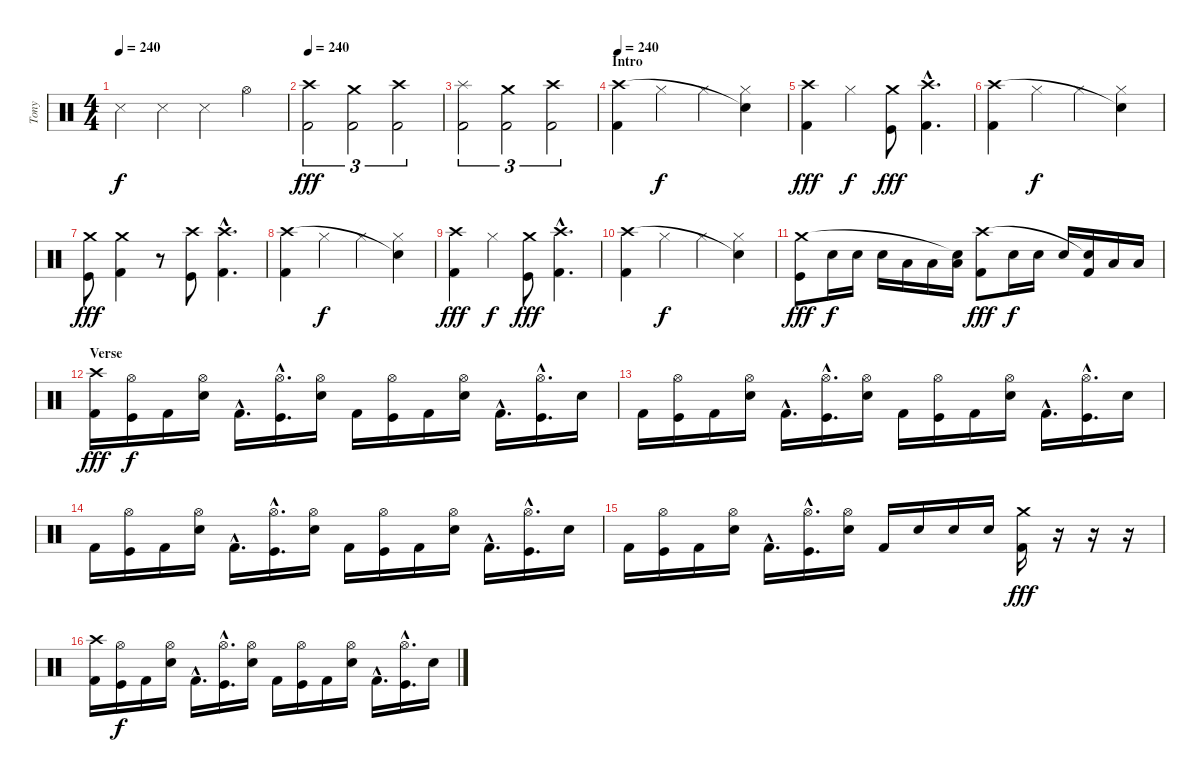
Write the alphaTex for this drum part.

\track ("Tony" "Tony") {instrument percussion}
\staff {score}
\articulation defaults
\ts (4 4)
\tempo 240
\clef neutral
\ks c "Snare (side stick) 3".4{dy f} "Snare (side stick) 3".4 "Snare (side stick) 3".4 "Hi-Hat (open)".4
|
\tempo 240
("Kick (hit) 2" "Crash high (hit)").2{tu (3 2) dy fff} ("Kick (hit) 2" "Crash medium (hit)").2{tu (3 2)} ("Kick (hit) 2" "Crash high (hit)").2{tu (3 2)} |
("Kick (hit) 2" "Splash (hit)").2{tu (3 2)} ("Kick (hit) 2" "Crash medium (hit)").2{tu (3 2)} ("Kick (hit) 2" "Crash high (hit)").2{tu (3 2)} |
\section ("" "Intro")
\tempo 240
("Kick (hit) 2" "Crash high (hit)").4 "Hi-Hat (closed)".4{dy f} "Hi-Hat (closed)".4 ("Hi-Hat (closed)" "Snare (hit)"{t}).4 |
("Kick (hit) 2" "Crash high (hit)").4{dy fff} "Hi-Hat (closed)".4{dy f} ("Kick (hit)" "Crash medium (hit)").8{dy fff} ("Kick (hit) 2"{hac} "Crash high (hit)"{hac}).4{d} |
("Kick (hit) 2" "Crash high (hit)").4 "Hi-Hat (closed)".4{dy f} "Hi-Hat (closed)".4 ("Hi-Hat (closed)" "Snare (hit)"{t}).4 |
("Kick (hit)" "Crash medium (hit)").8{dy fff} ("Kick (hit) 2" "Crash medium (hit)").4 r.8 ("Kick (hit)" "Crash high (hit)").8 ("Kick (hit) 2"{hac} "Crash high (hit)"{hac}).4{d} |
("Kick (hit) 2" "Crash high (hit)").4 "Hi-Hat (closed)".4{dy f} "Hi-Hat (closed)".4 ("Hi-Hat (closed)" "Snare (hit)"{t}).4 |
("Kick (hit) 2" "Crash high (hit)").4{dy fff} "Hi-Hat (closed)".4{dy f} ("Kick (hit)" "Crash medium (hit)").8{dy fff} ("Kick (hit) 2"{hac} "Crash high (hit)"{hac}).4{d} |
("Kick (hit) 2" "Crash high (hit)").4 "Hi-Hat (closed)".4{dy f} "Hi-Hat (closed)".4 ("Hi-Hat (closed)" "Snare (hit)"{t}).4 |
("Kick (hit)" "Crash medium (hit)").8{dy fff} "Snare (hit) 2".16{dy f} "Snare (hit) 2".16 "Snare (hit) 2".16 "Low Tom (hit)".16 "Low Tom (hit)".16 ("Low Tom (hit)" "Snare (hit)"{t}).16 ("Kick (hit) 2" "Crash high (hit)").8{dy fff} "Snare (hit) 2".16{dy f} "Snare (hit) 2".16 "Snare (hit) 2".16 ("Kick (hit) 2" "Snare (hit)"{t}).16 "Low Tom (hit)".16 "Low Tom (hit)".16 |
\section ("" "Verse")
("Kick (hit) 2" "Crash high (hit)").16{dy fff} ("Kick (hit)" "Hi-Hat (open)").16{dy f} "Kick (hit) 2".16 ("Snare (hit) 2" "Hi-Hat (open)").16 "Kick (hit) 2"{hac}.16{d} ("Kick (hit)"{hac} "Hi-Hat (open)"{hac}).16{d} ("Snare (hit) 2" "Hi-Hat (open)").16 "Kick (hit) 2".16 ("Kick (hit)" "Hi-Hat (open)").16 "Kick (hit) 2".16 ("Snare (hit) 2" "Hi-Hat (open)").16 "Kick (hit) 2"{hac}.16{d} ("Kick (hit)"{hac} "Hi-Hat (open)"{hac}).16{d} "Snare (hit) 2".16 |
"Kick (hit) 2".16 ("Kick (hit)" "Hi-Hat (open)").16 "Kick (hit) 2".16 ("Snare (hit) 2" "Hi-Hat (open)").16 "Kick (hit) 2"{hac}.16{d} ("Kick (hit)"{hac} "Hi-Hat (open)"{hac}).16{d} ("Snare (hit) 2" "Hi-Hat (open)").16 "Kick (hit) 2".16 ("Kick (hit)" "Hi-Hat (open)").16 "Kick (hit) 2".16 ("Snare (hit) 2" "Hi-Hat (open)").16 "Kick (hit) 2"{hac}.16{d} ("Kick (hit)"{hac} "Hi-Hat (open)"{hac}).16{d} "Snare (hit) 2".16 |
"Kick (hit) 2".16 ("Kick (hit)" "Hi-Hat (open)").16 "Kick (hit) 2".16 ("Snare (hit) 2" "Hi-Hat (open)").16 "Kick (hit) 2"{hac}.16{d} ("Kick (hit)"{hac} "Hi-Hat (open)"{hac}).16{d} ("Snare (hit) 2" "Hi-Hat (open)").16 "Kick (hit) 2".16 ("Kick (hit)" "Hi-Hat (open)").16 "Kick (hit) 2".16 ("Snare (hit) 2" "Hi-Hat (open)").16 "Kick (hit) 2"{hac}.16{d} ("Kick (hit)"{hac} "Hi-Hat (open)"{hac}).16{d} "Snare (hit) 2".16 |
"Kick (hit) 2".16 ("Kick (hit)" "Hi-Hat (open)").16 "Kick (hit) 2".16 ("Snare (hit) 2" "Hi-Hat (open)").16 "Kick (hit) 2"{hac}.16{d} ("Kick (hit)"{hac} "Hi-Hat (open)"{hac}).16{d} ("Snare (hit) 2" "Hi-Hat (open)").16 "Kick (hit) 2".16 "Snare (hit) 2".16 "Snare (hit) 2".16 "Snare (hit) 2".16 ("Kick (hit) 2" "Crash medium (hit)").16{dy fff} r.16 r.16 r.16 |
("Kick (hit) 2" "Crash high (hit)").16 ("Kick (hit)" "Hi-Hat (open)").16{dy f} "Kick (hit) 2".16 ("Snare (hit) 2" "Hi-Hat (open)").16 "Kick (hit) 2"{hac}.16{d} ("Kick (hit)"{hac} "Hi-Hat (open)"{hac}).16{d} ("Snare (hit) 2" "Hi-Hat (open)").16 "Kick (hit) 2".16 ("Kick (hit)" "Hi-Hat (open)").16 "Kick (hit) 2".16 ("Snare (hit) 2" "Hi-Hat (open)").16 "Kick (hit) 2"{hac}.16{d} ("Kick (hit)"{hac} "Hi-Hat (open)"{hac}).16{d} "Snare (hit) 2".16
